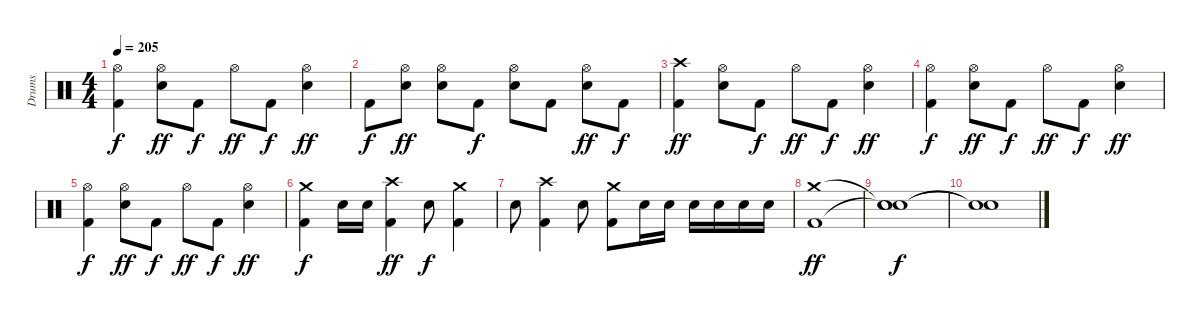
\track ("Drums" "Drums") {instrument percussion}
\staff {score}
\articulation defaults
\ts (4 4)
\tempo 205
\clef neutral
\ks c
("Hi-Hat (open)" "Kick (hit) 2").4{dy f} ("Hi-Hat (open)" "Electric Snare (hit)").8{dy ff} "Kick (hit) 2".8{dy f} "Hi-Hat (open)".8{dy ff} "Kick (hit) 2".8{dy f} ("Hi-Hat (open)" "Electric Snare (hit)").4{dy ff} |
"Kick (hit) 2".8{dy f} ("Hi-Hat (open)" "Electric Snare (hit)").8{dy ff} ("Hi-Hat (open)" "Electric Snare (hit)").8 "Kick (hit) 2".8{dy f} ("Hi-Hat (open)" "Electric Snare (hit)").8 "Kick (hit) 2".8 ("Hi-Hat (open)" "Electric Snare (hit)").8{dy ff} "Kick (hit) 2".8{dy f} |
("Crash high (hit)" "Kick (hit) 2").4{dy ff} ("Hi-Hat (open)" "Electric Snare (hit)").8 "Kick (hit) 2".8{dy f} "Hi-Hat (open)".8{dy ff} "Kick (hit) 2".8{dy f} ("Hi-Hat (open)" "Electric Snare (hit)").4{dy ff} |
("Hi-Hat (open)" "Kick (hit) 2").4{dy f} ("Hi-Hat (open)" "Electric Snare (hit)").8{dy ff} "Kick (hit) 2".8{dy f} "Hi-Hat (open)".8{dy ff} "Kick (hit) 2".8{dy f} ("Hi-Hat (open)" "Electric Snare (hit)").4{dy ff} |
("Hi-Hat (open)" "Kick (hit) 2").4{dy f} ("Hi-Hat (open)" "Electric Snare (hit)").8{dy ff} "Kick (hit) 2".8{dy f} "Hi-Hat (open)".8{dy ff} "Kick (hit) 2".8{dy f} ("Hi-Hat (open)" "Electric Snare (hit)").4{dy ff} |
("Crash medium (hit)" "Kick (hit) 2").4{dy f} "Electric Snare (hit)".16 "Electric Snare (hit)".16 ("Crash high (hit)" "Kick (hit) 2").4{dy ff} "Electric Snare (hit)".8{dy f} ("Crash medium (hit)" "Kick (hit) 2").4 |
"Electric Snare (hit)".8 ("Crash high (hit)" "Kick (hit) 2").4 "Electric Snare (hit)".8 ("Crash medium (hit)" "Kick (hit) 2").8 "Electric Snare (hit)".16 "Electric Snare (hit)".16 "Electric Snare (hit)".16 "Electric Snare (hit)".16 "Electric Snare (hit)".16 "Electric Snare (hit)".16 |
("Crash medium (hit)" "Kick (hit) 2").1{dy ff} |
("Snare (hit)"{t} "Snare (hit)"{t} "Snare (hit)").1{dy f} |
("Snare (hit)"{t} "Snare (hit)"{t}).1
